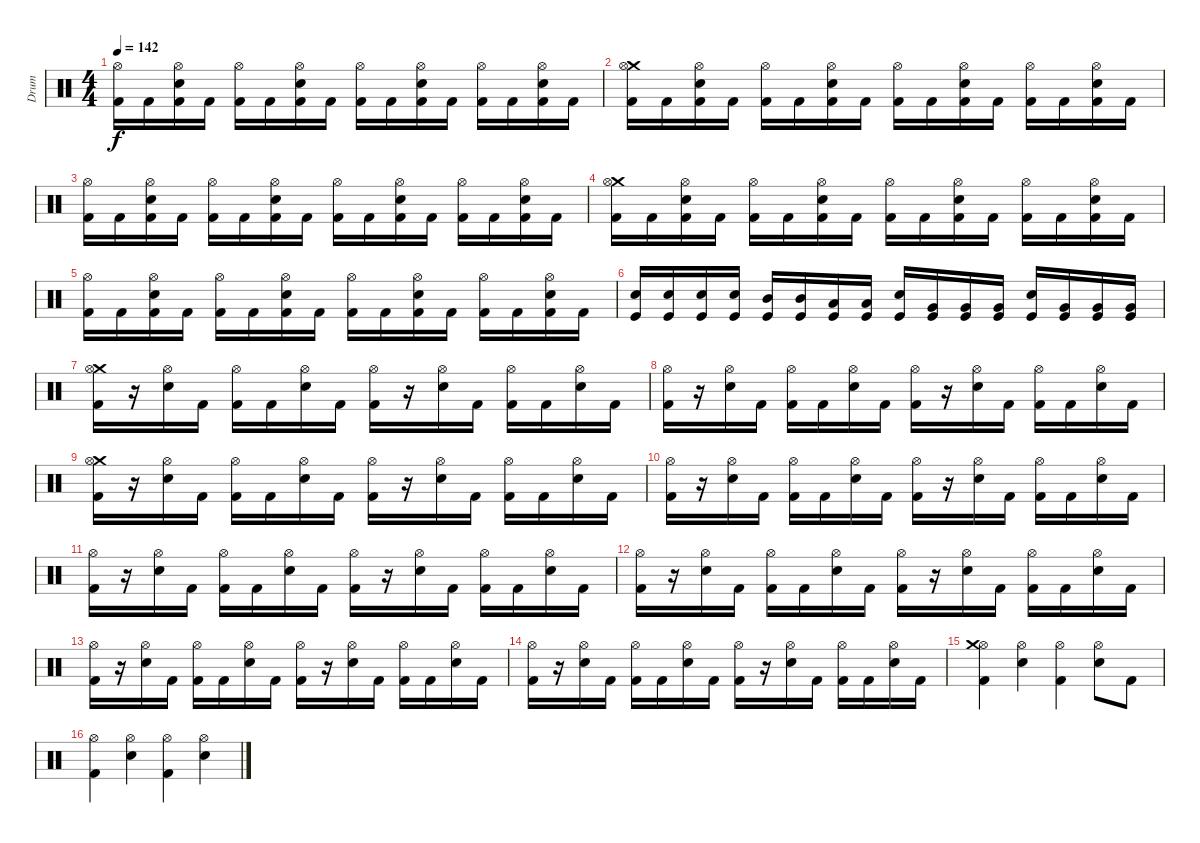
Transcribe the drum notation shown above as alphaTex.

\track ("Drum" "Drum") {instrument percussion}
\staff {score}
\articulation defaults
\ts (4 4)
\tempo 142
\clef neutral
\ks c
("Hi-Hat (open)" "Kick (hit) 2").16{dy f} "Kick (hit) 2".16 ("Electric Snare (hit)" "Hi-Hat (open)" "Kick (hit) 2").16 "Kick (hit) 2".16 ("Hi-Hat (open)" "Kick (hit) 2").16 "Kick (hit) 2".16 ("Electric Snare (hit)" "Hi-Hat (open)" "Kick (hit) 2").16 "Kick (hit) 2".16 ("Hi-Hat (open)" "Kick (hit) 2").16 "Kick (hit) 2".16 ("Electric Snare (hit)" "Hi-Hat (open)" "Kick (hit) 2").16 "Kick (hit) 2".16 ("Hi-Hat (open)" "Kick (hit) 2").16 "Kick (hit) 2".16 ("Electric Snare (hit)" "Hi-Hat (open)" "Kick (hit) 2").16 "Kick (hit) 2".16 |
("Crash medium (hit)" "Hi-Hat (open)" "Kick (hit) 2").16 "Kick (hit) 2".16 ("Electric Snare (hit)" "Hi-Hat (open)" "Kick (hit) 2").16 "Kick (hit) 2".16 ("Hi-Hat (open)" "Kick (hit) 2").16 "Kick (hit) 2".16 ("Electric Snare (hit)" "Hi-Hat (open)" "Kick (hit) 2").16 "Kick (hit) 2".16 ("Hi-Hat (open)" "Kick (hit) 2").16 "Kick (hit) 2".16 ("Electric Snare (hit)" "Hi-Hat (open)" "Kick (hit) 2").16 "Kick (hit) 2".16 ("Hi-Hat (open)" "Kick (hit) 2").16 "Kick (hit) 2".16 ("Electric Snare (hit)" "Hi-Hat (open)" "Kick (hit) 2").16 "Kick (hit) 2".16 |
("Hi-Hat (open)" "Kick (hit) 2").16 "Kick (hit) 2".16 ("Electric Snare (hit)" "Hi-Hat (open)" "Kick (hit) 2").16 "Kick (hit) 2".16 ("Hi-Hat (open)" "Kick (hit) 2").16 "Kick (hit) 2".16 ("Electric Snare (hit)" "Hi-Hat (open)" "Kick (hit) 2").16 "Kick (hit) 2".16 ("Hi-Hat (open)" "Kick (hit) 2").16 "Kick (hit) 2".16 ("Electric Snare (hit)" "Hi-Hat (open)" "Kick (hit) 2").16 "Kick (hit) 2".16 ("Hi-Hat (open)" "Kick (hit) 2").16 "Kick (hit) 2".16 ("Electric Snare (hit)" "Hi-Hat (open)" "Kick (hit) 2").16 "Kick (hit) 2".16 |
("Crash medium (hit)" "Hi-Hat (open)" "Kick (hit) 2").16 "Kick (hit) 2".16 ("Electric Snare (hit)" "Hi-Hat (open)" "Kick (hit) 2").16 "Kick (hit) 2".16 ("Hi-Hat (open)" "Kick (hit) 2").16 "Kick (hit) 2".16 ("Electric Snare (hit)" "Hi-Hat (open)" "Kick (hit) 2").16 "Kick (hit) 2".16 ("Hi-Hat (open)" "Kick (hit) 2").16 "Kick (hit) 2".16 ("Electric Snare (hit)" "Hi-Hat (open)" "Kick (hit) 2").16 "Kick (hit) 2".16 ("Hi-Hat (open)" "Kick (hit) 2").16 "Kick (hit) 2".16 ("Electric Snare (hit)" "Hi-Hat (open)" "Kick (hit) 2").16 "Kick (hit) 2".16 |
("Hi-Hat (open)" "Kick (hit) 2").16 "Kick (hit) 2".16 ("Electric Snare (hit)" "Hi-Hat (open)" "Kick (hit) 2").16 "Kick (hit) 2".16 ("Hi-Hat (open)" "Kick (hit) 2").16 "Kick (hit) 2".16 ("Electric Snare (hit)" "Hi-Hat (open)" "Kick (hit) 2").16 "Kick (hit) 2".16 ("Hi-Hat (open)" "Kick (hit) 2").16 "Kick (hit) 2".16 ("Electric Snare (hit)" "Hi-Hat (open)" "Kick (hit) 2").16 "Kick (hit) 2".16 ("Hi-Hat (open)" "Kick (hit) 2").16 "Kick (hit) 2".16 ("Electric Snare (hit)" "Hi-Hat (open)" "Kick (hit) 2").16 "Kick (hit) 2".16 |
("Electric Snare (hit)" "Kick (hit)").16 ("Electric Snare (hit)" "Kick (hit)").16 ("Electric Snare (hit)" "Kick (hit)").16 ("Electric Snare (hit)" "Kick (hit)").16 ("Mid Tom (hit)" "Kick (hit)").16 ("Mid Tom (hit)" "Kick (hit)").16 ("Low Tom (hit)" "Kick (hit)").16 ("Low Tom (hit)" "Kick (hit)").16 ("Electric Snare (hit)" "Kick (hit)").16 ("Very Low Tom (hit)" "Kick (hit)").16 ("Very Low Tom (hit)" "Kick (hit)").16 ("Very Low Tom (hit)" "Kick (hit)").16 ("Electric Snare (hit)" "Kick (hit)").16 ("Very Low Tom (hit)" "Kick (hit)").16 ("Very Low Tom (hit)" "Kick (hit)").16 ("Very Low Tom (hit)" "Kick (hit)").16 |
("Crash medium (hit)" "Hi-Hat (open)" "Kick (hit) 2").16 r.16 ("Electric Snare (hit)" "Hi-Hat (open)").16 "Kick (hit) 2".16 ("Hi-Hat (open)" "Kick (hit) 2").16 "Kick (hit) 2".16 ("Electric Snare (hit)" "Hi-Hat (open)").16 "Kick (hit) 2".16 ("Hi-Hat (open)" "Kick (hit) 2").16 r.16 ("Electric Snare (hit)" "Hi-Hat (open)").16 "Kick (hit) 2".16 ("Hi-Hat (open)" "Kick (hit) 2").16 "Kick (hit) 2".16 ("Electric Snare (hit)" "Hi-Hat (open)").16 "Kick (hit) 2".16 |
("Hi-Hat (open)" "Kick (hit) 2").16 r.16 ("Electric Snare (hit)" "Hi-Hat (open)").16 "Kick (hit) 2".16 ("Hi-Hat (open)" "Kick (hit) 2").16 "Kick (hit) 2".16 ("Electric Snare (hit)" "Hi-Hat (open)").16 "Kick (hit) 2".16 ("Hi-Hat (open)" "Kick (hit) 2").16 r.16 ("Electric Snare (hit)" "Hi-Hat (open)").16 "Kick (hit) 2".16 ("Hi-Hat (open)" "Kick (hit) 2").16 "Kick (hit) 2".16 ("Electric Snare (hit)" "Hi-Hat (open)").16 "Kick (hit) 2".16 |
("Crash medium (hit)" "Hi-Hat (open)" "Kick (hit) 2").16 r.16 ("Electric Snare (hit)" "Hi-Hat (open)").16 "Kick (hit) 2".16 ("Hi-Hat (open)" "Kick (hit) 2").16 "Kick (hit) 2".16 ("Electric Snare (hit)" "Hi-Hat (open)").16 "Kick (hit) 2".16 ("Hi-Hat (open)" "Kick (hit) 2").16 r.16 ("Electric Snare (hit)" "Hi-Hat (open)").16 "Kick (hit) 2".16 ("Hi-Hat (open)" "Kick (hit) 2").16 "Kick (hit) 2".16 ("Electric Snare (hit)" "Hi-Hat (open)").16 "Kick (hit) 2".16 |
("Hi-Hat (open)" "Kick (hit) 2").16 r.16 ("Electric Snare (hit)" "Hi-Hat (open)").16 "Kick (hit) 2".16 ("Hi-Hat (open)" "Kick (hit) 2").16 "Kick (hit) 2".16 ("Electric Snare (hit)" "Hi-Hat (open)").16 "Kick (hit) 2".16 ("Hi-Hat (open)" "Kick (hit) 2").16 r.16 ("Electric Snare (hit)" "Hi-Hat (open)").16 "Kick (hit) 2".16 ("Hi-Hat (open)" "Kick (hit) 2").16 "Kick (hit) 2".16 ("Electric Snare (hit)" "Hi-Hat (open)").16 "Kick (hit) 2".16 |
("Hi-Hat (open)" "Kick (hit) 2").16 r.16 ("Electric Snare (hit)" "Hi-Hat (open)").16 "Kick (hit) 2".16 ("Hi-Hat (open)" "Kick (hit) 2").16 "Kick (hit) 2".16 ("Electric Snare (hit)" "Hi-Hat (open)").16 "Kick (hit) 2".16 ("Hi-Hat (open)" "Kick (hit) 2").16 r.16 ("Electric Snare (hit)" "Hi-Hat (open)").16 "Kick (hit) 2".16 ("Hi-Hat (open)" "Kick (hit) 2").16 "Kick (hit) 2".16 ("Electric Snare (hit)" "Hi-Hat (open)").16 "Kick (hit) 2".16 |
("Hi-Hat (open)" "Kick (hit) 2").16 r.16 ("Electric Snare (hit)" "Hi-Hat (open)").16 "Kick (hit) 2".16 ("Hi-Hat (open)" "Kick (hit) 2").16 "Kick (hit) 2".16 ("Electric Snare (hit)" "Hi-Hat (open)").16 "Kick (hit) 2".16 ("Hi-Hat (open)" "Kick (hit) 2").16 r.16 ("Electric Snare (hit)" "Hi-Hat (open)").16 "Kick (hit) 2".16 ("Hi-Hat (open)" "Kick (hit) 2").16 "Kick (hit) 2".16 ("Electric Snare (hit)" "Hi-Hat (open)").16 "Kick (hit) 2".16 |
("Hi-Hat (open)" "Kick (hit) 2").16 r.16 ("Electric Snare (hit)" "Hi-Hat (open)").16 "Kick (hit) 2".16 ("Hi-Hat (open)" "Kick (hit) 2").16 "Kick (hit) 2".16 ("Electric Snare (hit)" "Hi-Hat (open)").16 "Kick (hit) 2".16 ("Hi-Hat (open)" "Kick (hit) 2").16 r.16 ("Electric Snare (hit)" "Hi-Hat (open)").16 "Kick (hit) 2".16 ("Hi-Hat (open)" "Kick (hit) 2").16 "Kick (hit) 2".16 ("Electric Snare (hit)" "Hi-Hat (open)").16 "Kick (hit) 2".16 |
("Hi-Hat (open)" "Kick (hit) 2").16 r.16 ("Electric Snare (hit)" "Hi-Hat (open)").16 "Kick (hit) 2".16 ("Hi-Hat (open)" "Kick (hit) 2").16 "Kick (hit) 2".16 ("Electric Snare (hit)" "Hi-Hat (open)").16 "Kick (hit) 2".16 ("Hi-Hat (open)" "Kick (hit) 2").16 r.16 ("Electric Snare (hit)" "Hi-Hat (open)").16 "Kick (hit) 2".16 ("Hi-Hat (open)" "Kick (hit) 2").16 "Kick (hit) 2".16 ("Electric Snare (hit)" "Hi-Hat (open)").16 "Kick (hit) 2".16 |
("Kick (hit) 2" "Hi-Hat (open)" "Crash medium (hit)").4 ("Electric Snare (hit)" "Hi-Hat (open)").4 ("Kick (hit) 2" "Hi-Hat (open)").4 ("Electric Snare (hit)" "Hi-Hat (open)").8 "Kick (hit) 2".8 |
("Kick (hit) 2" "Hi-Hat (open)").4 ("Electric Snare (hit)" "Hi-Hat (open)").4 ("Kick (hit) 2" "Hi-Hat (open)").4 ("Electric Snare (hit)" "Hi-Hat (open)").4
